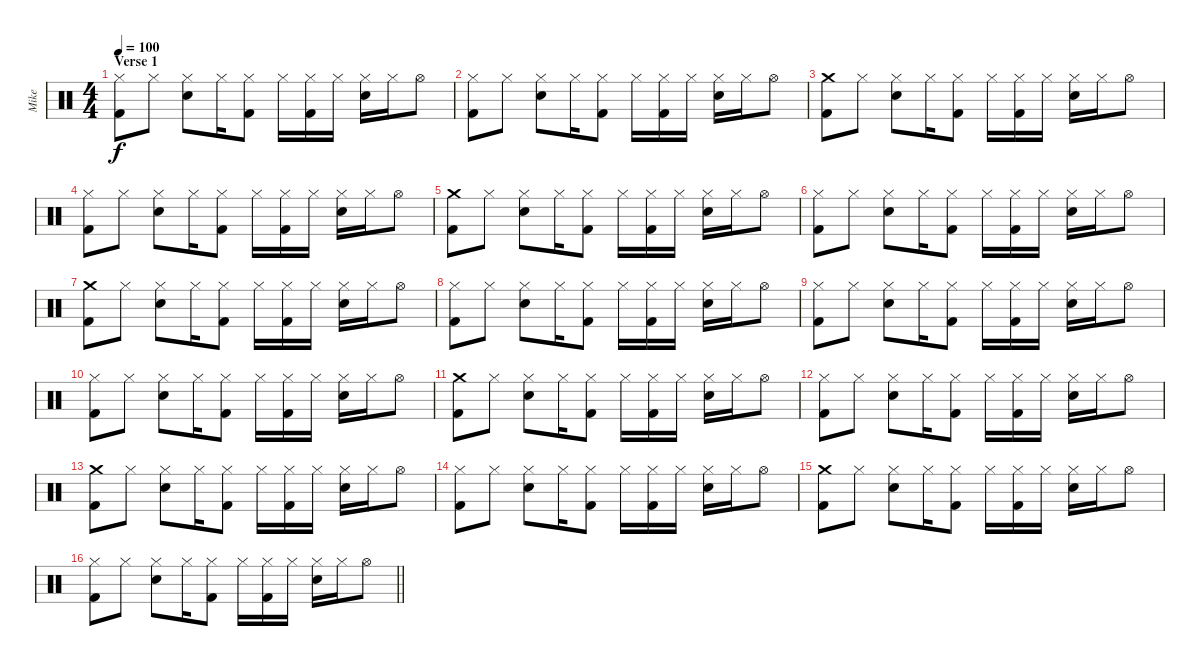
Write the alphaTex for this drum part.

\track ("Mike" "Mike") {instrument percussion}
\staff {score}
\articulation defaults
\ts (4 4)
\section ("" "Verse 1")
\tempo 100
\clef neutral
\ks c
("Hi-Hat (closed)" "Kick (hit) 2").8{dy f} "Hi-Hat (closed)".8 ("Hi-Hat (closed)" "Electric Snare (hit)").8 "Hi-Hat (closed)".16 ("Hi-Hat (closed)" "Kick (hit) 2").8 "Hi-Hat (closed)".16 ("Hi-Hat (closed)" "Kick (hit) 2").16 "Hi-Hat (closed)".16 ("Hi-Hat (closed)" "Electric Snare (hit)").16 "Hi-Hat (closed)".16 "Hi-Hat (open)".8 |
("Hi-Hat (closed)" "Kick (hit) 2").8 "Hi-Hat (closed)".8 ("Hi-Hat (closed)" "Electric Snare (hit)").8 "Hi-Hat (closed)".16 ("Hi-Hat (closed)" "Kick (hit) 2").8 "Hi-Hat (closed)".16 ("Hi-Hat (closed)" "Kick (hit) 2").16 "Hi-Hat (closed)".16 ("Hi-Hat (closed)" "Electric Snare (hit)").16 "Hi-Hat (closed)".16 "Hi-Hat (open)".8 |
("Crash medium (hit)" "Kick (hit) 2").8 "Hi-Hat (closed)".8 ("Hi-Hat (closed)" "Electric Snare (hit)").8 "Hi-Hat (closed)".16 ("Hi-Hat (closed)" "Kick (hit) 2").8 "Hi-Hat (closed)".16 ("Hi-Hat (closed)" "Kick (hit) 2").16 "Hi-Hat (closed)".16 ("Hi-Hat (closed)" "Electric Snare (hit)").16 "Hi-Hat (closed)".16 "Hi-Hat (open)".8 |
("Hi-Hat (closed)" "Kick (hit) 2").8 "Hi-Hat (closed)".8 ("Hi-Hat (closed)" "Electric Snare (hit)").8 "Hi-Hat (closed)".16 ("Hi-Hat (closed)" "Kick (hit) 2").8 "Hi-Hat (closed)".16 ("Hi-Hat (closed)" "Kick (hit) 2").16 "Hi-Hat (closed)".16 ("Hi-Hat (closed)" "Electric Snare (hit)").16 "Hi-Hat (closed)".16 "Hi-Hat (open)".8 |
("Crash medium (hit)" "Kick (hit) 2").8 "Hi-Hat (closed)".8 ("Hi-Hat (closed)" "Electric Snare (hit)").8 "Hi-Hat (closed)".16 ("Hi-Hat (closed)" "Kick (hit) 2").8 "Hi-Hat (closed)".16 ("Hi-Hat (closed)" "Kick (hit) 2").16 "Hi-Hat (closed)".16 ("Hi-Hat (closed)" "Electric Snare (hit)").16 "Hi-Hat (closed)".16 "Hi-Hat (open)".8 |
("Hi-Hat (closed)" "Kick (hit) 2").8 "Hi-Hat (closed)".8 ("Hi-Hat (closed)" "Electric Snare (hit)").8 "Hi-Hat (closed)".16 ("Hi-Hat (closed)" "Kick (hit) 2").8 "Hi-Hat (closed)".16 ("Hi-Hat (closed)" "Kick (hit) 2").16 "Hi-Hat (closed)".16 ("Hi-Hat (closed)" "Electric Snare (hit)").16 "Hi-Hat (closed)".16 "Hi-Hat (open)".8 |
("Crash medium (hit)" "Kick (hit) 2").8 "Hi-Hat (closed)".8 ("Hi-Hat (closed)" "Electric Snare (hit)").8 "Hi-Hat (closed)".16 ("Hi-Hat (closed)" "Kick (hit) 2").8 "Hi-Hat (closed)".16 ("Hi-Hat (closed)" "Kick (hit) 2").16 "Hi-Hat (closed)".16 ("Hi-Hat (closed)" "Electric Snare (hit)").16 "Hi-Hat (closed)".16 "Hi-Hat (open)".8 |
("Hi-Hat (closed)" "Kick (hit) 2").8 "Hi-Hat (closed)".8 ("Hi-Hat (closed)" "Electric Snare (hit)").8 "Hi-Hat (closed)".16 ("Hi-Hat (closed)" "Kick (hit) 2").8 "Hi-Hat (closed)".16 ("Hi-Hat (closed)" "Kick (hit) 2").16 "Hi-Hat (closed)".16 ("Hi-Hat (closed)" "Electric Snare (hit)").16 "Hi-Hat (closed)".16 "Hi-Hat (open)".8 |
("Hi-Hat (closed)" "Kick (hit) 2").8 "Hi-Hat (closed)".8 ("Hi-Hat (closed)" "Electric Snare (hit)").8 "Hi-Hat (closed)".16 ("Hi-Hat (closed)" "Kick (hit) 2").8 "Hi-Hat (closed)".16 ("Hi-Hat (closed)" "Kick (hit) 2").16 "Hi-Hat (closed)".16 ("Hi-Hat (closed)" "Electric Snare (hit)").16 "Hi-Hat (closed)".16 "Hi-Hat (open)".8 |
("Hi-Hat (closed)" "Kick (hit) 2").8 "Hi-Hat (closed)".8 ("Hi-Hat (closed)" "Electric Snare (hit)").8 "Hi-Hat (closed)".16 ("Hi-Hat (closed)" "Kick (hit) 2").8 "Hi-Hat (closed)".16 ("Hi-Hat (closed)" "Kick (hit) 2").16 "Hi-Hat (closed)".16 ("Hi-Hat (closed)" "Electric Snare (hit)").16 "Hi-Hat (closed)".16 "Hi-Hat (open)".8 |
("Crash medium (hit)" "Kick (hit) 2").8 "Hi-Hat (closed)".8 ("Hi-Hat (closed)" "Electric Snare (hit)").8 "Hi-Hat (closed)".16 ("Hi-Hat (closed)" "Kick (hit) 2").8 "Hi-Hat (closed)".16 ("Hi-Hat (closed)" "Kick (hit) 2").16 "Hi-Hat (closed)".16 ("Hi-Hat (closed)" "Electric Snare (hit)").16 "Hi-Hat (closed)".16 "Hi-Hat (open)".8 |
("Hi-Hat (closed)" "Kick (hit) 2").8 "Hi-Hat (closed)".8 ("Hi-Hat (closed)" "Electric Snare (hit)").8 "Hi-Hat (closed)".16 ("Hi-Hat (closed)" "Kick (hit) 2").8 "Hi-Hat (closed)".16 ("Hi-Hat (closed)" "Kick (hit) 2").16 "Hi-Hat (closed)".16 ("Hi-Hat (closed)" "Electric Snare (hit)").16 "Hi-Hat (closed)".16 "Hi-Hat (open)".8 |
("Crash medium (hit)" "Kick (hit) 2").8 "Hi-Hat (closed)".8 ("Hi-Hat (closed)" "Electric Snare (hit)").8 "Hi-Hat (closed)".16 ("Hi-Hat (closed)" "Kick (hit) 2").8 "Hi-Hat (closed)".16 ("Hi-Hat (closed)" "Kick (hit) 2").16 "Hi-Hat (closed)".16 ("Hi-Hat (closed)" "Electric Snare (hit)").16 "Hi-Hat (closed)".16 "Hi-Hat (open)".8 |
("Hi-Hat (closed)" "Kick (hit) 2").8 "Hi-Hat (closed)".8 ("Hi-Hat (closed)" "Electric Snare (hit)").8 "Hi-Hat (closed)".16 ("Hi-Hat (closed)" "Kick (hit) 2").8 "Hi-Hat (closed)".16 ("Hi-Hat (closed)" "Kick (hit) 2").16 "Hi-Hat (closed)".16 ("Hi-Hat (closed)" "Electric Snare (hit)").16 "Hi-Hat (closed)".16 "Hi-Hat (open)".8 |
("Crash medium (hit)" "Kick (hit) 2").8 "Hi-Hat (closed)".8 ("Hi-Hat (closed)" "Electric Snare (hit)").8 "Hi-Hat (closed)".16 ("Hi-Hat (closed)" "Kick (hit) 2").8 "Hi-Hat (closed)".16 ("Hi-Hat (closed)" "Kick (hit) 2").16 "Hi-Hat (closed)".16 ("Hi-Hat (closed)" "Electric Snare (hit)").16 "Hi-Hat (closed)".16 "Hi-Hat (open)".8 |
\barLineRight lightlight
("Hi-Hat (closed)" "Kick (hit) 2").8 "Hi-Hat (closed)".8 ("Hi-Hat (closed)" "Electric Snare (hit)").8 "Hi-Hat (closed)".16 ("Hi-Hat (closed)" "Kick (hit) 2").8 "Hi-Hat (closed)".16 ("Hi-Hat (closed)" "Kick (hit) 2").16 "Hi-Hat (closed)".16 ("Hi-Hat (closed)" "Electric Snare (hit)").16 "Hi-Hat (closed)".16 "Hi-Hat (open)".8
